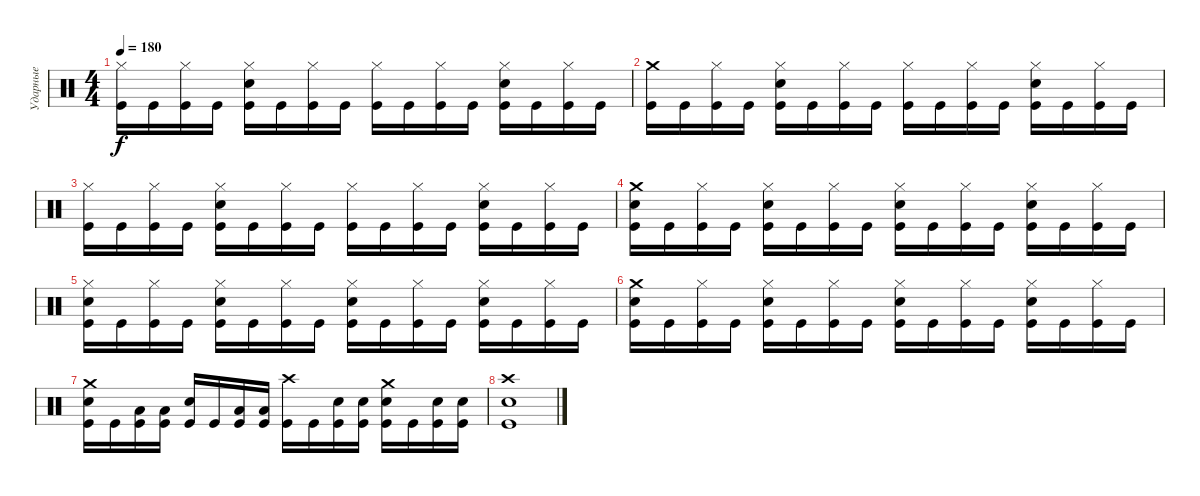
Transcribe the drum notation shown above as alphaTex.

\track ("Ударные" "Ударные") {instrument percussion}
\staff {score}
\articulation defaults
\ts (4 4)
\tempo 180
\clef neutral
\ks c
("Hi-Hat (closed)" "Kick (hit)").16{dy f} "Kick (hit)".16 ("Hi-Hat (closed)" "Kick (hit)").16 "Kick (hit)".16 ("Hi-Hat (closed)" "Electric Snare (hit)" "Kick (hit)").16 "Kick (hit)".16 ("Hi-Hat (closed)" "Kick (hit)").16 "Kick (hit)".16 ("Hi-Hat (closed)" "Kick (hit)").16 "Kick (hit)".16 ("Hi-Hat (closed)" "Kick (hit)").16 "Kick (hit)".16 ("Hi-Hat (closed)" "Electric Snare (hit)" "Kick (hit)").16 "Kick (hit)".16 ("Hi-Hat (closed)" "Kick (hit)").16 "Kick (hit)".16 |
("Crash medium (hit)" "Kick (hit)").16 "Kick (hit)".16 ("Hi-Hat (closed)" "Kick (hit)").16 "Kick (hit)".16 ("Hi-Hat (closed)" "Electric Snare (hit)" "Kick (hit)").16 "Kick (hit)".16 ("Hi-Hat (closed)" "Kick (hit)").16 "Kick (hit)".16 ("Hi-Hat (closed)" "Kick (hit)").16 "Kick (hit)".16 ("Hi-Hat (closed)" "Kick (hit)").16 "Kick (hit)".16 ("Hi-Hat (closed)" "Electric Snare (hit)" "Kick (hit)").16 "Kick (hit)".16 ("Hi-Hat (closed)" "Kick (hit)").16 "Kick (hit)".16 |
("Hi-Hat (closed)" "Kick (hit)").16 "Kick (hit)".16 ("Hi-Hat (closed)" "Kick (hit)").16 "Kick (hit)".16 ("Hi-Hat (closed)" "Electric Snare (hit)" "Kick (hit)").16 "Kick (hit)".16 ("Hi-Hat (closed)" "Kick (hit)").16 "Kick (hit)".16 ("Hi-Hat (closed)" "Kick (hit)").16 "Kick (hit)".16 ("Hi-Hat (closed)" "Kick (hit)").16 "Kick (hit)".16 ("Hi-Hat (closed)" "Electric Snare (hit)" "Kick (hit)").16 "Kick (hit)".16 ("Hi-Hat (closed)" "Kick (hit)").16 "Kick (hit)".16 |
("Crash medium (hit)" "Electric Snare (hit)" "Kick (hit)").16 "Kick (hit)".16 ("Hi-Hat (closed)" "Kick (hit)").16 "Kick (hit)".16 ("Hi-Hat (closed)" "Electric Snare (hit)" "Kick (hit)").16 "Kick (hit)".16 ("Hi-Hat (closed)" "Kick (hit)").16 "Kick (hit)".16 ("Hi-Hat (closed)" "Electric Snare (hit)" "Kick (hit)").16 "Kick (hit)".16 ("Hi-Hat (closed)" "Kick (hit)").16 "Kick (hit)".16 ("Hi-Hat (closed)" "Electric Snare (hit)" "Kick (hit)").16 "Kick (hit)".16 ("Hi-Hat (closed)" "Kick (hit)").16 "Kick (hit)".16 |
("Hi-Hat (closed)" "Electric Snare (hit)" "Kick (hit)").16 "Kick (hit)".16 ("Hi-Hat (closed)" "Kick (hit)").16 "Kick (hit)".16 ("Hi-Hat (closed)" "Electric Snare (hit)" "Kick (hit)").16 "Kick (hit)".16 ("Hi-Hat (closed)" "Kick (hit)").16 "Kick (hit)".16 ("Hi-Hat (closed)" "Electric Snare (hit)" "Kick (hit)").16 "Kick (hit)".16 ("Hi-Hat (closed)" "Kick (hit)").16 "Kick (hit)".16 ("Hi-Hat (closed)" "Electric Snare (hit)" "Kick (hit)").16 "Kick (hit)".16 ("Hi-Hat (closed)" "Kick (hit)").16 "Kick (hit)".16 |
("Crash medium (hit)" "Electric Snare (hit)" "Kick (hit)").16 "Kick (hit)".16 ("Hi-Hat (closed)" "Kick (hit)").16 "Kick (hit)".16 ("Hi-Hat (closed)" "Electric Snare (hit)" "Kick (hit)").16 "Kick (hit)".16 ("Hi-Hat (closed)" "Kick (hit)").16 "Kick (hit)".16 ("Hi-Hat (closed)" "Electric Snare (hit)" "Kick (hit)").16 "Kick (hit)".16 ("Hi-Hat (closed)" "Kick (hit)").16 "Kick (hit)".16 ("Hi-Hat (closed)" "Electric Snare (hit)" "Kick (hit)").16 "Kick (hit)".16 ("Hi-Hat (closed)" "Kick (hit)").16 "Kick (hit)".16 |
("Crash medium (hit)" "Electric Snare (hit)" "Kick (hit)").16 "Kick (hit)".16 ("Low Tom (hit)" "Kick (hit)").16 ("Low Tom (hit)" "Kick (hit)").16 ("Electric Snare (hit)" "Kick (hit)").16 "Kick (hit)".16 ("Low Tom (hit)" "Kick (hit)").16 ("Low Tom (hit)" "Kick (hit)").16 ("Crash high (hit)" "Kick (hit)").16 "Kick (hit)".16 ("Electric Snare (hit)" "Kick (hit)").16 ("Electric Snare (hit)" "Kick (hit)").16 ("Crash medium (hit)" "Electric Snare (hit)" "Kick (hit)").16 "Kick (hit)".16 ("Electric Snare (hit)" "Kick (hit)").16 ("Electric Snare (hit)" "Kick (hit)").16 |
("Crash high (hit)" "Electric Snare (hit)" "Kick (hit)").1
